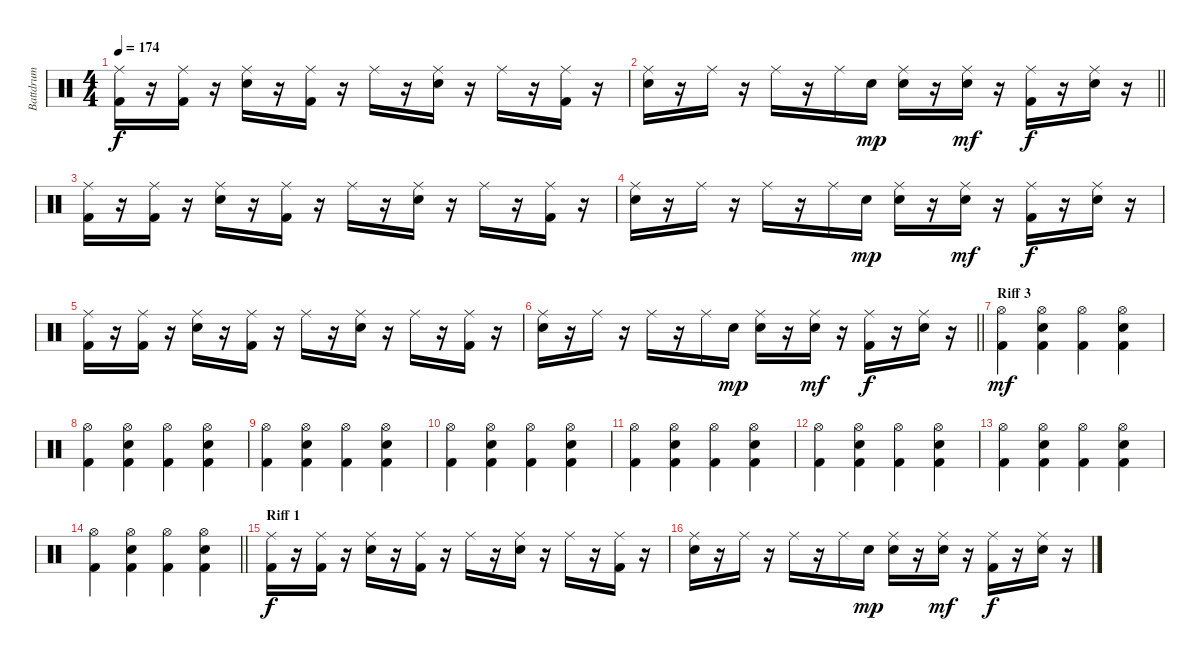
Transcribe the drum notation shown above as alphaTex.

\track ("Battdrum" "Battdrum") {instrument percussion}
\staff {score}
\articulation defaults
\ts (4 4)
\tempo 174
\clef neutral
\ks c
("Kick (hit) 2" "Ride (middle)").16{dy f} r.16 ("Kick (hit) 2" "Ride (middle)").16 r.16 ("Snare (hit) 2" "Ride (middle)").16 r.16 ("Kick (hit) 2" "Ride (middle)").16 r.16 "Ride (middle)".16 r.16 ("Snare (hit) 2" "Ride (middle)").16 r.16 "Ride (middle)".16 r.16 ("Kick (hit) 2" "Ride (middle)").16 r.16 |
\barLineRight lightlight
("Snare (hit) 2" "Ride (middle)").16 r.16 "Ride (middle)".16 r.16 "Ride (middle)".16 r.16 "Ride (middle)".16 "Snare (hit) 2".16{dy mp} ("Snare (hit) 2" "Ride (middle)").16 r.16 ("Snare (hit) 2" "Ride (middle)").16{dy mf} r.16 ("Kick (hit) 2" "Ride (middle)").16{dy f} r.16 ("Snare (hit) 2" "Ride (middle)").16 r.16 |
("Kick (hit) 2" "Ride (middle)").16 r.16 ("Kick (hit) 2" "Ride (middle)").16 r.16 ("Snare (hit) 2" "Ride (middle)").16 r.16 ("Kick (hit) 2" "Ride (middle)").16 r.16 "Ride (middle)".16 r.16 ("Snare (hit) 2" "Ride (middle)").16 r.16 "Ride (middle)".16 r.16 ("Kick (hit) 2" "Ride (middle)").16 r.16 |
("Snare (hit) 2" "Ride (middle)").16 r.16 "Ride (middle)".16 r.16 "Ride (middle)".16 r.16 "Ride (middle)".16 "Snare (hit) 2".16{dy mp} ("Snare (hit) 2" "Ride (middle)").16 r.16 ("Snare (hit) 2" "Ride (middle)").16{dy mf} r.16 ("Kick (hit) 2" "Ride (middle)").16{dy f} r.16 ("Snare (hit) 2" "Ride (middle)").16 r.16 |
("Kick (hit) 2" "Ride (middle)").16 r.16 ("Kick (hit) 2" "Ride (middle)").16 r.16 ("Snare (hit) 2" "Ride (middle)").16 r.16 ("Kick (hit) 2" "Ride (middle)").16 r.16 "Ride (middle)".16 r.16 ("Snare (hit) 2" "Ride (middle)").16 r.16 "Ride (middle)".16 r.16 ("Kick (hit) 2" "Ride (middle)").16 r.16 |
\barLineRight lightlight
("Snare (hit) 2" "Ride (middle)").16 r.16 "Ride (middle)".16 r.16 "Ride (middle)".16 r.16 "Ride (middle)".16 "Snare (hit) 2".16{dy mp} ("Snare (hit) 2" "Ride (middle)").16 r.16 ("Snare (hit) 2" "Ride (middle)").16{dy mf} r.16 ("Kick (hit) 2" "Ride (middle)").16{dy f} r.16 ("Snare (hit) 2" "Ride (middle)").16 r.16 |
\section ("" "Riff 3")
("Kick (hit) 2" "Hi-Hat (open)").4{dy mf} ("Kick (hit) 2" "Snare (hit) 2" "Hi-Hat (open)").4 ("Kick (hit) 2" "Hi-Hat (open)").4 ("Kick (hit) 2" "Snare (hit) 2" "Hi-Hat (open)").4 |
("Kick (hit) 2" "Hi-Hat (open)").4 ("Kick (hit) 2" "Snare (hit) 2" "Hi-Hat (open)").4 ("Kick (hit) 2" "Hi-Hat (open)").4 ("Kick (hit) 2" "Snare (hit) 2" "Hi-Hat (open)").4 |
("Kick (hit) 2" "Hi-Hat (open)").4 ("Kick (hit) 2" "Snare (hit) 2" "Hi-Hat (open)").4 ("Kick (hit) 2" "Hi-Hat (open)").4 ("Kick (hit) 2" "Snare (hit) 2" "Hi-Hat (open)").4 |
("Kick (hit) 2" "Hi-Hat (open)").4 ("Kick (hit) 2" "Snare (hit) 2" "Hi-Hat (open)").4 ("Kick (hit) 2" "Hi-Hat (open)").4 ("Kick (hit) 2" "Snare (hit) 2" "Hi-Hat (open)").4 |
("Kick (hit) 2" "Hi-Hat (open)").4 ("Kick (hit) 2" "Snare (hit) 2" "Hi-Hat (open)").4 ("Kick (hit) 2" "Hi-Hat (open)").4 ("Kick (hit) 2" "Snare (hit) 2" "Hi-Hat (open)").4 |
("Kick (hit) 2" "Hi-Hat (open)").4 ("Kick (hit) 2" "Snare (hit) 2" "Hi-Hat (open)").4 ("Kick (hit) 2" "Hi-Hat (open)").4 ("Kick (hit) 2" "Snare (hit) 2" "Hi-Hat (open)").4 |
("Kick (hit) 2" "Hi-Hat (open)").4 ("Kick (hit) 2" "Snare (hit) 2" "Hi-Hat (open)").4 ("Kick (hit) 2" "Hi-Hat (open)").4 ("Kick (hit) 2" "Snare (hit) 2" "Hi-Hat (open)").4 |
\barLineRight lightlight
("Kick (hit) 2" "Hi-Hat (open)").4 ("Kick (hit) 2" "Snare (hit) 2" "Hi-Hat (open)").4 ("Kick (hit) 2" "Hi-Hat (open)").4 ("Kick (hit) 2" "Snare (hit) 2" "Hi-Hat (open)").4 |
\section ("" "Riff 1")
("Kick (hit) 2" "Ride (middle)").16{dy f} r.16 ("Kick (hit) 2" "Ride (middle)").16 r.16 ("Snare (hit) 2" "Ride (middle)").16 r.16 ("Kick (hit) 2" "Ride (middle)").16 r.16 "Ride (middle)".16 r.16 ("Snare (hit) 2" "Ride (middle)").16 r.16 "Ride (middle)".16 r.16 ("Kick (hit) 2" "Ride (middle)").16 r.16 |
("Snare (hit) 2" "Ride (middle)").16 r.16 "Ride (middle)".16 r.16 "Ride (middle)".16 r.16 "Ride (middle)".16 "Snare (hit) 2".16{dy mp} ("Snare (hit) 2" "Ride (middle)").16 r.16 ("Snare (hit) 2" "Ride (middle)").16{dy mf} r.16 ("Kick (hit) 2" "Ride (middle)").16{dy f} r.16 ("Snare (hit) 2" "Ride (middle)").16 r.16
